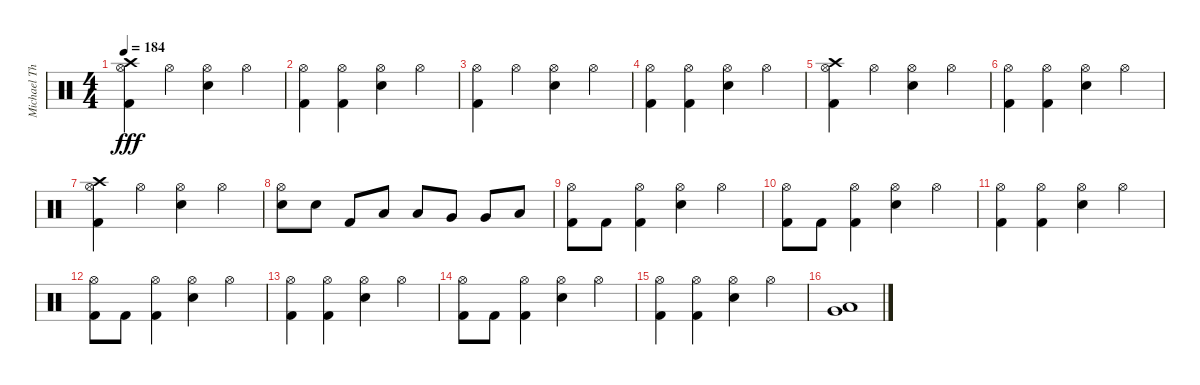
\track ("Michael Thomas" "Michael Th") {instrument percussion}
\staff {score}
\articulation defaults
\ts (4 4)
\tempo 184
\clef neutral
\ks c
("Crash high (hit)" "Hi-Hat (open)" "Kick (hit) 2").4{dy fff} "Hi-Hat (open)".4 ("Hi-Hat (open)" "Snare (hit) 2").4 "Hi-Hat (open)".4 |
("Hi-Hat (open)" "Kick (hit) 2").4 ("Hi-Hat (open)" "Kick (hit) 2").4 ("Hi-Hat (open)" "Snare (hit) 2").4 "Hi-Hat (open)".4 |
("Hi-Hat (open)" "Kick (hit) 2").4 "Hi-Hat (open)".4 ("Hi-Hat (open)" "Snare (hit) 2").4 "Hi-Hat (open)".4 |
("Hi-Hat (open)" "Kick (hit) 2").4 ("Hi-Hat (open)" "Kick (hit) 2").4 ("Hi-Hat (open)" "Snare (hit) 2").4 "Hi-Hat (open)".4 |
("Crash high (hit)" "Hi-Hat (open)" "Kick (hit) 2").4 "Hi-Hat (open)".4 ("Hi-Hat (open)" "Snare (hit) 2").4 "Hi-Hat (open)".4 |
("Hi-Hat (open)" "Kick (hit) 2").4 ("Hi-Hat (open)" "Kick (hit) 2").4 ("Hi-Hat (open)" "Snare (hit) 2").4 "Hi-Hat (open)".4 |
("Crash high (hit)" "Hi-Hat (open)" "Kick (hit) 2").4 "Hi-Hat (open)".4 ("Hi-Hat (open)" "Snare (hit) 2").4 "Hi-Hat (open)".4 |
("Hi-Hat (open)" "Snare (hit) 2").8 "Snare (hit) 2".8 "Kick (hit) 2".8 "Low Tom (hit)".8 "Low Tom (hit)".8 "Very Low Tom (hit)".8 "Very Low Tom (hit)".8 "Low Floor Tom (hit)".8 |
("Hi-Hat (open)" "Kick (hit) 2").8 "Kick (hit) 2".8 ("Hi-Hat (open)" "Kick (hit) 2").4 ("Hi-Hat (open)" "Snare (hit) 2").4 "Hi-Hat (open)".4 |
("Hi-Hat (open)" "Kick (hit) 2").8 "Kick (hit) 2".8 ("Hi-Hat (open)" "Kick (hit) 2").4 ("Hi-Hat (open)" "Snare (hit) 2").4 "Hi-Hat (open)".4 |
("Hi-Hat (open)" "Kick (hit) 2").4 ("Hi-Hat (open)" "Kick (hit) 2").4 ("Hi-Hat (open)" "Snare (hit) 2").4 "Hi-Hat (open)".4 |
("Hi-Hat (open)" "Kick (hit) 2").8 "Kick (hit) 2".8 ("Hi-Hat (open)" "Kick (hit) 2").4 ("Hi-Hat (open)" "Snare (hit) 2").4 "Hi-Hat (open)".4 |
("Hi-Hat (open)" "Kick (hit) 2").4 ("Hi-Hat (open)" "Kick (hit) 2").4 ("Hi-Hat (open)" "Snare (hit) 2").4 "Hi-Hat (open)".4 |
("Hi-Hat (open)" "Kick (hit) 2").8 "Kick (hit) 2".8 ("Hi-Hat (open)" "Kick (hit) 2").4 ("Hi-Hat (open)" "Snare (hit) 2").4 "Hi-Hat (open)".4 |
("Hi-Hat (open)" "Kick (hit) 2").4 ("Hi-Hat (open)" "Kick (hit) 2").4 ("Hi-Hat (open)" "Snare (hit) 2").4 "Hi-Hat (open)".4 |
("Very Low Tom (hit)" "Low Floor Tom (hit)").1
